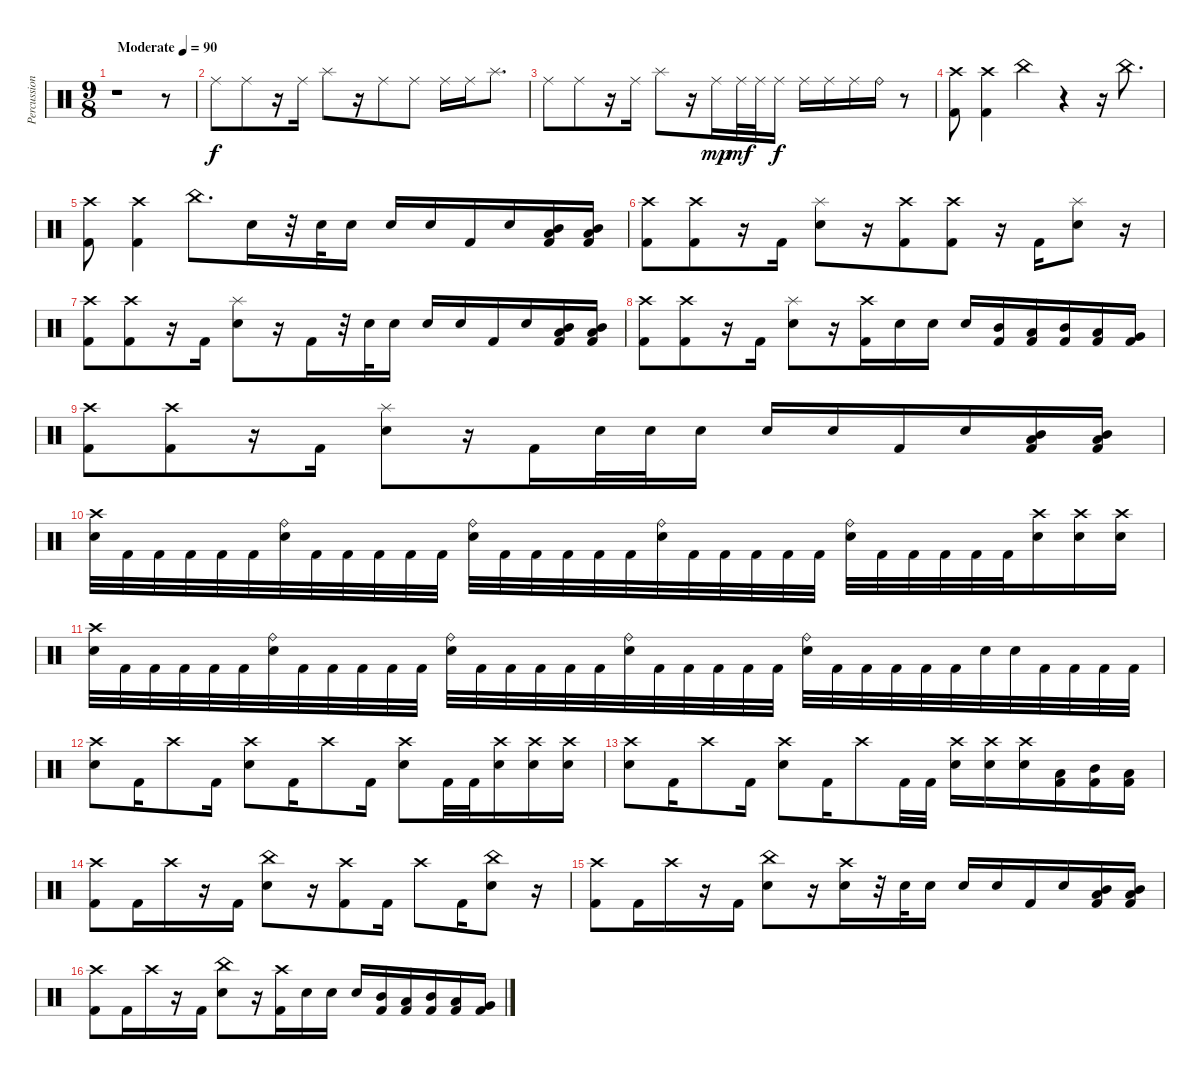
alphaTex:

\track ("Percussion" "Percussion") {instrument percussion}
\staff {score}
\articulation defaults
\ts (9 8)
\tempo (90 "Moderate")
\clef neutral
\ks c
r.1{dy f} r.8 |
"Ride (middle)".8 "Ride (middle)".8 r.16 "Ride (middle)".16 "Splash (hit)".8 r.16 "Ride (middle)".8 "Ride (middle)".8 "Ride (middle)".16 "Ride (middle)".16 "Splash (hit)".8{d} |
"Ride (middle)".8 "Ride (middle)".8 r.16 "Ride (middle)".16 "Splash (hit)".8 r.16 "Ride (middle)".16{dy mp} "Ride (middle)".32{dy mf} "Ride (middle)".32 "Ride (middle)".16{dy f} "Ride (middle)".16 "Ride (middle)".16 "Ride (middle)".16 "Ride (bell)".16 r.8 |
("Crash high (hit)" "Kick (hit) 2").8 ("Crash high (hit)" "Kick (hit) 2").4 "China (hit)".4 r.4 r.16 "China (hit)".8{d} |
("Crash high (hit)" "Kick (hit) 2").8 ("Crash high (hit)" "Kick (hit) 2").4 "China (hit)".8{d} "Snare (hit) 2".16 r.32 "Snare (hit) 2".32 "Snare (hit) 2".16 "Snare (hit) 2".16 "Snare (hit) 2".16 "Kick (hit) 2".16 "Snare (hit) 2".16 ("Mid Tom (hit)" "Low Tom (hit)" "Kick (hit) 2").16 ("Mid Tom (hit)" "Low Tom (hit)" "Kick (hit) 2").16 |
("Crash high (hit)" "Kick (hit) 2").8 ("Crash high (hit)" "Kick (hit) 2").8 r.16 "Kick (hit) 2".16 ("Splash (hit)" "Snare (hit) 2").8 r.16 ("Crash high (hit)" "Kick (hit) 2").8 ("Crash high (hit)" "Kick (hit) 2").8 r.16 "Kick (hit) 2".16 ("Splash (hit)" "Snare (hit) 2").8 r.16 |
("Crash high (hit)" "Kick (hit) 2").8 ("Crash high (hit)" "Kick (hit) 2").8 r.16 "Kick (hit) 2".16 ("Splash (hit)" "Snare (hit) 2").8 r.16 "Kick (hit) 2".16 r.32 "Snare (hit) 2".32 "Snare (hit) 2".16 "Snare (hit) 2".16 "Snare (hit) 2".16 "Kick (hit) 2".16 "Snare (hit) 2".16 ("Mid Tom (hit)" "Low Tom (hit)" "Kick (hit) 2").16 ("Mid Tom (hit)" "Low Tom (hit)" "Kick (hit) 2").16 |
("Crash high (hit)" "Kick (hit) 2").8 ("Crash high (hit)" "Kick (hit) 2").8 r.16 "Kick (hit) 2".16 ("Splash (hit)" "Snare (hit) 2").8 r.16 ("Crash high (hit)" "Kick (hit) 2").16 "Snare (hit) 2".16 "Snare (hit) 2".16 "Snare (hit) 2".16 ("Mid Tom (hit)" "Kick (hit) 2").16 ("Low Tom (hit)" "Kick (hit) 2").16 ("Mid Tom (hit)" "Kick (hit) 2").16 ("Low Tom (hit)" "Kick (hit) 2").16 ("Very Low Tom (hit)" "Kick (hit) 2").16 |
("Crash high (hit)" "Kick (hit) 2").8 ("Crash high (hit)" "Kick (hit) 2").8 r.16 "Kick (hit) 2".16 ("Splash (hit)" "Snare (hit) 2").8 r.16 "Kick (hit) 2".16 "Snare (hit) 2".32 "Snare (hit) 2".32 "Snare (hit) 2".16 "Snare (hit) 2".16 "Snare (hit) 2".16 "Kick (hit) 2".16 "Snare (hit) 2".16 ("Mid Tom (hit)" "Low Tom (hit)" "Kick (hit) 2").16 ("Mid Tom (hit)" "Low Tom (hit)" "Kick (hit) 2").16 |
("Crash high (hit)" "Snare (hit) 2").32 "Kick (hit) 2".32 "Kick (hit) 2".32 "Kick (hit) 2".32 "Kick (hit) 2".32 "Kick (hit) 2".32 ("Ride (bell)" "Snare (hit) 2").32 "Kick (hit) 2".32 "Kick (hit) 2".32 "Kick (hit) 2".32 "Kick (hit) 2".32 "Kick (hit) 2".32 ("Ride (bell)" "Snare (hit) 2").32 "Kick (hit) 2".32 "Kick (hit) 2".32 "Kick (hit) 2".32 "Kick (hit) 2".32 "Kick (hit) 2".32 ("Ride (bell)" "Snare (hit) 2").32 "Kick (hit) 2".32 "Kick (hit) 2".32 "Kick (hit) 2".32 "Kick (hit) 2".32 "Kick (hit) 2".32 ("Ride (bell)" "Snare (hit) 2").32 "Kick (hit) 2".32 "Kick (hit) 2".32 "Kick (hit) 2".32 "Kick (hit) 2".32 "Kick (hit) 2".32 ("Crash high (hit)" "Snare (hit) 2").16 ("Crash high (hit)" "Snare (hit) 2").16 ("Crash high (hit)" "Snare (hit) 2").16 |
("Crash high (hit)" "Snare (hit) 2").32 "Kick (hit) 2".32 "Kick (hit) 2".32 "Kick (hit) 2".32 "Kick (hit) 2".32 "Kick (hit) 2".32 ("Ride (bell)" "Snare (hit) 2").32 "Kick (hit) 2".32 "Kick (hit) 2".32 "Kick (hit) 2".32 "Kick (hit) 2".32 "Kick (hit) 2".32 ("Ride (bell)" "Snare (hit) 2").32 "Kick (hit) 2".32 "Kick (hit) 2".32 "Kick (hit) 2".32 "Kick (hit) 2".32 "Kick (hit) 2".32 ("Ride (bell)" "Snare (hit) 2").32 "Kick (hit) 2".32 "Kick (hit) 2".32 "Kick (hit) 2".32 "Kick (hit) 2".32 "Kick (hit) 2".32 ("Ride (bell)" "Snare (hit) 2").32 "Kick (hit) 2".32 "Kick (hit) 2".32 "Kick (hit) 2".32 "Kick (hit) 2".32 "Kick (hit) 2".32 "Snare (hit) 2".32 "Snare (hit) 2".32 "Kick (hit) 2".32 "Kick (hit) 2".32 "Kick (hit) 2".32 "Kick (hit) 2".32 |
("Crash high (hit)" "Snare (hit) 2").8 "Kick (hit) 2".16 "Crash high (hit)".8 "Kick (hit) 2".16 ("Crash high (hit)" "Snare (hit) 2").8 "Kick (hit) 2".16 "Crash high (hit)".8 "Kick (hit) 2".16 ("Crash high (hit)" "Snare (hit) 2").8 "Kick (hit) 2".32 "Kick (hit) 2".32 ("Crash high (hit)" "Snare (hit) 2").16 ("Crash high (hit)" "Snare (hit) 2").16 ("Crash high (hit)" "Snare (hit) 2").16 |
("Crash high (hit)" "Snare (hit) 2").8 "Kick (hit) 2".16 "Crash high (hit)".8 "Kick (hit) 2".16 ("Crash high (hit)" "Snare (hit) 2").8 "Kick (hit) 2".16 "Crash high (hit)".8 "Kick (hit) 2".32 "Kick (hit) 2".32 ("Crash high (hit)" "Snare (hit) 2").16 ("Crash high (hit)" "Snare (hit) 2").16 ("Crash high (hit)" "Snare (hit) 2").16 ("Low Tom (hit)" "Kick (hit) 2").16 ("Mid Tom (hit)" "Kick (hit) 2").16 ("Low Tom (hit)" "Kick (hit) 2").16 |
("Crash high (hit)" "Kick (hit) 2").8 "Kick (hit) 2".16 "Crash high (hit)".16 r.16 "Kick (hit) 2".16 ("China (hit)" "Snare (hit) 2").8 r.16 ("Crash high (hit)" "Kick (hit) 2").8 "Kick (hit) 2".16 "Crash high (hit)".8 "Kick (hit) 2".16 ("China (hit)" "Snare (hit) 2").8 r.16 |
("Crash high (hit)" "Kick (hit) 2").8 "Kick (hit) 2".16 "Crash high (hit)".16 r.16 "Kick (hit) 2".16 ("China (hit)" "Snare (hit) 2").8 r.16 ("Crash high (hit)" "Snare (hit) 2").16 r.32 "Snare (hit) 2".32 "Snare (hit) 2".16 "Snare (hit) 2".16 "Snare (hit) 2".16 "Kick (hit) 2".16 "Snare (hit) 2".16 ("Mid Tom (hit)" "Low Tom (hit)" "Kick (hit) 2").16 ("Mid Tom (hit)" "Low Tom (hit)" "Kick (hit) 2").16 |
("Crash high (hit)" "Kick (hit) 2").8 "Kick (hit) 2".16 "Crash high (hit)".16 r.16 "Kick (hit) 2".16 ("China (hit)" "Snare (hit) 2").8 r.16 ("Crash high (hit)" "Kick (hit) 2").16 "Snare (hit) 2".16 "Snare (hit) 2".16 "Snare (hit) 2".16 ("Mid Tom (hit)" "Kick (hit) 2").16 ("Low Tom (hit)" "Kick (hit) 2").16 ("Mid Tom (hit)" "Kick (hit) 2").16 ("Low Tom (hit)" "Kick (hit) 2").16 ("Very Low Tom (hit)" "Kick (hit) 2").16
